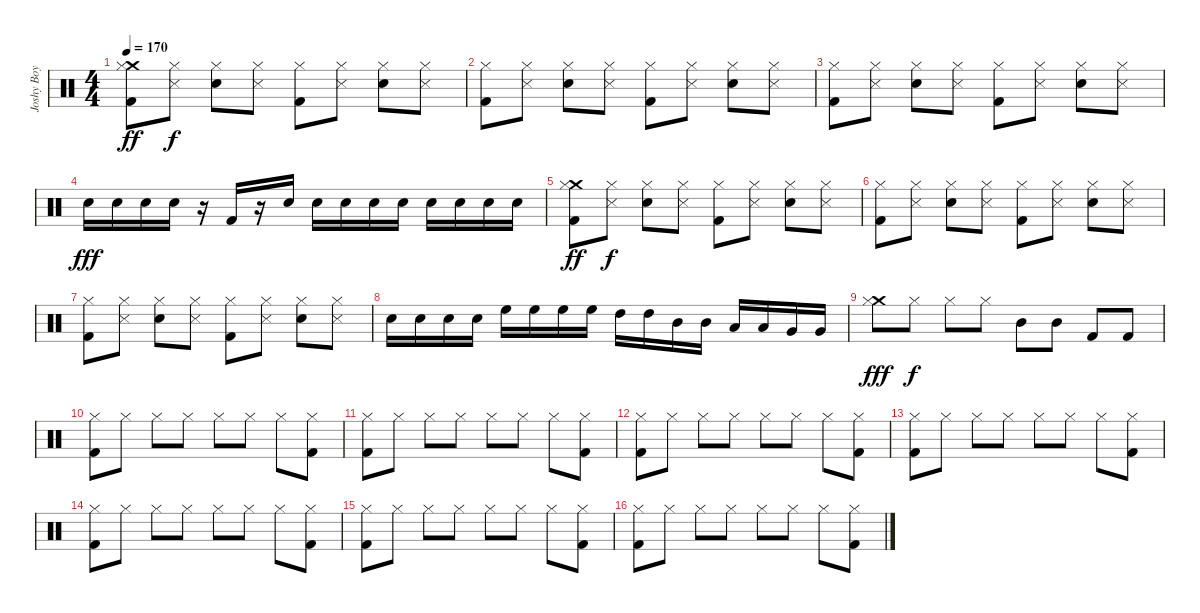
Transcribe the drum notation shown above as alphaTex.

\track ("Joshy Boy" "Joshy Boy") {instrument percussion}
\staff {score}
\articulation defaults
\ts (4 4)
\tempo 170
\clef neutral
\ks c
("Crash medium (hit)" "Hi-Hat (closed)" "Kick (hit) 2").8{dy ff} ("Hi-Hat (closed)" "Snare (side stick) 3").8{dy f} ("Hi-Hat (closed)" "Electric Snare (hit)").8 ("Hi-Hat (closed)" "Snare (side stick) 3").8 ("Hi-Hat (closed)" "Kick (hit) 2").8 ("Hi-Hat (closed)" "Snare (side stick) 3").8 ("Hi-Hat (closed)" "Electric Snare (hit)").8 ("Hi-Hat (closed)" "Snare (side stick) 3").8 |
("Hi-Hat (closed)" "Kick (hit) 2").8 ("Hi-Hat (closed)" "Snare (side stick) 3").8 ("Hi-Hat (closed)" "Electric Snare (hit)").8 ("Hi-Hat (closed)" "Snare (side stick) 3").8 ("Hi-Hat (closed)" "Kick (hit) 2").8 ("Hi-Hat (closed)" "Snare (side stick) 3").8 ("Hi-Hat (closed)" "Electric Snare (hit)").8 ("Hi-Hat (closed)" "Snare (side stick) 3").8 |
("Hi-Hat (closed)" "Kick (hit) 2").8 ("Hi-Hat (closed)" "Snare (side stick) 3").8 ("Hi-Hat (closed)" "Electric Snare (hit)").8 ("Hi-Hat (closed)" "Snare (side stick) 3").8 ("Hi-Hat (closed)" "Kick (hit) 2").8 ("Hi-Hat (closed)" "Snare (side stick) 3").8 ("Hi-Hat (closed)" "Electric Snare (hit)").8 ("Hi-Hat (closed)" "Snare (side stick) 3").8 |
"Electric Snare (hit)".16{dy fff} "Electric Snare (hit)".16 "Electric Snare (hit)".16 "Electric Snare (hit)".16 r.16 "Kick (hit) 2".16 r.16 "Electric Snare (hit)".16 "Electric Snare (hit)".16 "Electric Snare (hit)".16 "Electric Snare (hit)".16 "Electric Snare (hit)".16 "Electric Snare (hit)".16 "Electric Snare (hit)".16 "Electric Snare (hit)".16 "Electric Snare (hit)".16 |
("Crash medium (hit)" "Hi-Hat (closed)" "Kick (hit) 2").8{dy ff} ("Hi-Hat (closed)" "Snare (side stick) 3").8{dy f} ("Hi-Hat (closed)" "Electric Snare (hit)").8 ("Hi-Hat (closed)" "Snare (side stick) 3").8 ("Hi-Hat (closed)" "Kick (hit) 2").8 ("Hi-Hat (closed)" "Snare (side stick) 3").8 ("Hi-Hat (closed)" "Electric Snare (hit)").8 ("Hi-Hat (closed)" "Snare (side stick) 3").8 |
("Hi-Hat (closed)" "Kick (hit) 2").8 ("Hi-Hat (closed)" "Snare (side stick) 3").8 ("Hi-Hat (closed)" "Electric Snare (hit)").8 ("Hi-Hat (closed)" "Snare (side stick) 3").8 ("Hi-Hat (closed)" "Kick (hit) 2").8 ("Hi-Hat (closed)" "Snare (side stick) 3").8 ("Hi-Hat (closed)" "Electric Snare (hit)").8 ("Hi-Hat (closed)" "Snare (side stick) 3").8 |
("Hi-Hat (closed)" "Kick (hit) 2").8 ("Hi-Hat (closed)" "Snare (side stick) 3").8 ("Hi-Hat (closed)" "Electric Snare (hit)").8 ("Hi-Hat (closed)" "Snare (side stick) 3").8 ("Hi-Hat (closed)" "Kick (hit) 2").8 ("Hi-Hat (closed)" "Snare (side stick) 3").8 ("Hi-Hat (closed)" "Electric Snare (hit)").8 ("Hi-Hat (closed)" "Snare (side stick) 3").8 |
"Electric Snare (hit)".16 "Electric Snare (hit)".16 "Electric Snare (hit)".16 "Electric Snare (hit)".16 "High Floor Tom (hit)".16 "High Floor Tom (hit)".16 "High Floor Tom (hit)".16 "High Floor Tom (hit)".16 "High Tom (hit)".16 "High Tom (hit)".16 "Mid Tom (hit)".16 "Mid Tom (hit)".16 "Low Tom (hit)".16 "Low Tom (hit)".16 "Very Low Tom (hit)".16 "Very Low Tom (hit)".16 |
("Crash medium (hit)" "Hi-Hat (closed)").8{dy fff} "Hi-Hat (closed)".8{dy f} "Hi-Hat (closed)".8 "Hi-Hat (closed)".8 "Mid Tom (hit)".8 "Mid Tom (hit)".8 "Kick (hit) 2".8 "Kick (hit) 2".8 |
("Kick (hit) 2" "Hi-Hat (closed)").8 "Hi-Hat (closed)".8 "Hi-Hat (closed)".8 "Hi-Hat (closed)".8 "Hi-Hat (closed)".8 "Hi-Hat (closed)".8 "Hi-Hat (closed)".8 ("Kick (hit) 2" "Hi-Hat (closed)").8 |
("Kick (hit) 2" "Hi-Hat (closed)").8 "Hi-Hat (closed)".8 "Hi-Hat (closed)".8 "Hi-Hat (closed)".8 "Hi-Hat (closed)".8 "Hi-Hat (closed)".8 "Hi-Hat (closed)".8 ("Kick (hit) 2" "Hi-Hat (closed)").8 |
("Kick (hit) 2" "Hi-Hat (closed)").8 "Hi-Hat (closed)".8 "Hi-Hat (closed)".8 "Hi-Hat (closed)".8 "Hi-Hat (closed)".8 "Hi-Hat (closed)".8 "Hi-Hat (closed)".8 ("Kick (hit) 2" "Hi-Hat (closed)").8 |
("Kick (hit) 2" "Hi-Hat (closed)").8 "Hi-Hat (closed)".8 "Hi-Hat (closed)".8 "Hi-Hat (closed)".8 "Hi-Hat (closed)".8 "Hi-Hat (closed)".8 "Hi-Hat (closed)".8 ("Kick (hit) 2" "Hi-Hat (closed)").8 |
("Kick (hit) 2" "Hi-Hat (closed)").8 "Hi-Hat (closed)".8 "Hi-Hat (closed)".8 "Hi-Hat (closed)".8 "Hi-Hat (closed)".8 "Hi-Hat (closed)".8 "Hi-Hat (closed)".8 ("Kick (hit) 2" "Hi-Hat (closed)").8 |
("Kick (hit) 2" "Hi-Hat (closed)").8 "Hi-Hat (closed)".8 "Hi-Hat (closed)".8 "Hi-Hat (closed)".8 "Hi-Hat (closed)".8 "Hi-Hat (closed)".8 "Hi-Hat (closed)".8 ("Kick (hit) 2" "Hi-Hat (closed)").8 |
("Kick (hit) 2" "Hi-Hat (closed)").8 "Hi-Hat (closed)".8 "Hi-Hat (closed)".8 "Hi-Hat (closed)".8 "Hi-Hat (closed)".8 "Hi-Hat (closed)".8 "Hi-Hat (closed)".8 ("Kick (hit) 2" "Hi-Hat (closed)").8
